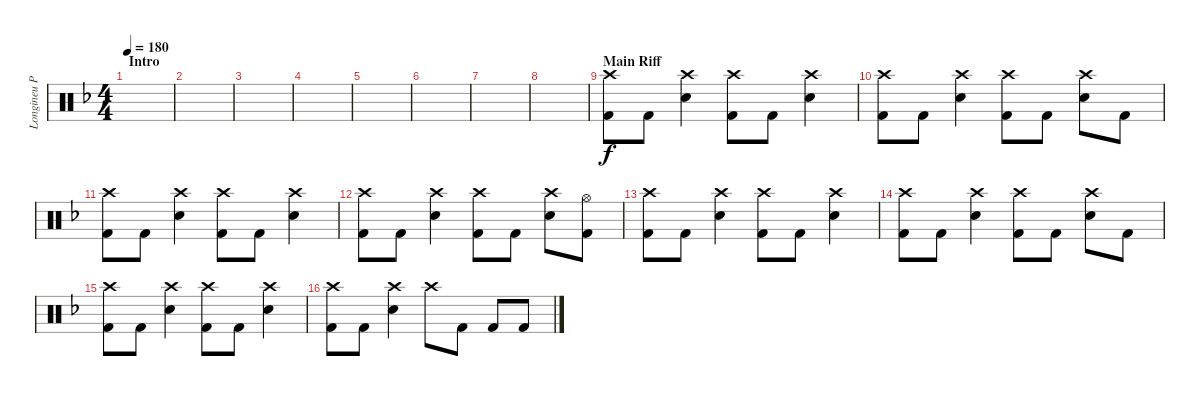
\track ("Longineu Parsons III (Drums 1)" "Longineu P") {instrument percussion}
\staff {score}
\articulation defaults
\ts (4 4)
\section ("" "Intro")
\tempo 180
\clef neutral
\ks f
|
|
|
|
|
|
|
|
\section ("" "Main Riff")
("Crash high (hit)" "Kick (hit) 2").8 "Kick (hit) 2".8 ("Crash high (hit)" "Snare (hit) 2").4 ("Crash high (hit)" "Kick (hit) 2").8 "Kick (hit) 2".8 ("Crash high (hit)" "Snare (hit) 2").4 |
("Crash high (hit)" "Kick (hit) 2").8 "Kick (hit) 2".8 ("Crash high (hit)" "Snare (hit) 2").4 ("Crash high (hit)" "Kick (hit) 2").8 "Kick (hit) 2".8 ("Crash high (hit)" "Snare (hit) 2").8 "Kick (hit) 2".8 |
("Crash high (hit)" "Kick (hit) 2").8 "Kick (hit) 2".8 ("Crash high (hit)" "Snare (hit) 2").4 ("Crash high (hit)" "Kick (hit) 2").8 "Kick (hit) 2".8 ("Crash high (hit)" "Snare (hit) 2").4 |
("Crash high (hit)" "Kick (hit) 2").8 "Kick (hit) 2".8 ("Crash high (hit)" "Snare (hit) 2").4 ("Crash high (hit)" "Kick (hit) 2").8 "Kick (hit) 2".8 ("Crash high (hit)" "Snare (hit) 2").8 ("Hi-Hat (open)" "Kick (hit) 2").8 |
("Crash high (hit)" "Kick (hit) 2").8 "Kick (hit) 2".8 ("Crash high (hit)" "Snare (hit) 2").4 ("Crash high (hit)" "Kick (hit) 2").8 "Kick (hit) 2".8 ("Crash high (hit)" "Snare (hit) 2").4 |
("Crash high (hit)" "Kick (hit) 2").8 "Kick (hit) 2".8 ("Crash high (hit)" "Snare (hit) 2").4 ("Crash high (hit)" "Kick (hit) 2").8 "Kick (hit) 2".8 ("Crash high (hit)" "Snare (hit) 2").8 "Kick (hit) 2".8 |
("Crash high (hit)" "Kick (hit) 2").8 "Kick (hit) 2".8 ("Crash high (hit)" "Snare (hit) 2").4 ("Crash high (hit)" "Kick (hit) 2").8 "Kick (hit) 2".8 ("Crash high (hit)" "Snare (hit) 2").4 |
("Crash high (hit)" "Kick (hit) 2").8 "Kick (hit) 2".8 ("Crash high (hit)" "Snare (hit) 2").4 "Crash high (hit)".8 "Kick (hit) 2".8 "Kick (hit) 2".8 "Kick (hit) 2".8
